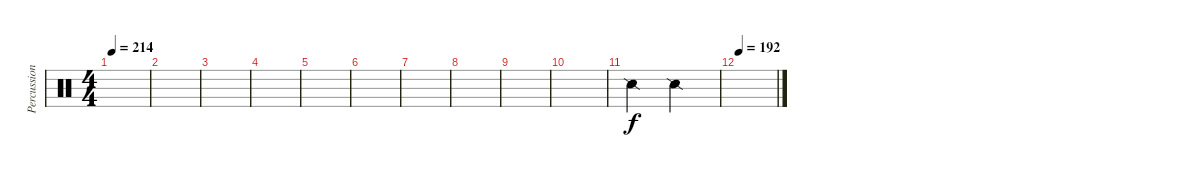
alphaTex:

\track ("Percussion" "Percussion") {instrument percussion}
\staff {score}
\articulation defaults
\ts (4 4)
\tempo 214
\clef neutral
\ks c
|
|
|
|
|
|
|
|
|
|
"Snare (side stick) 2".2 "Snare (side stick) 2".2 |
\tempo 192
